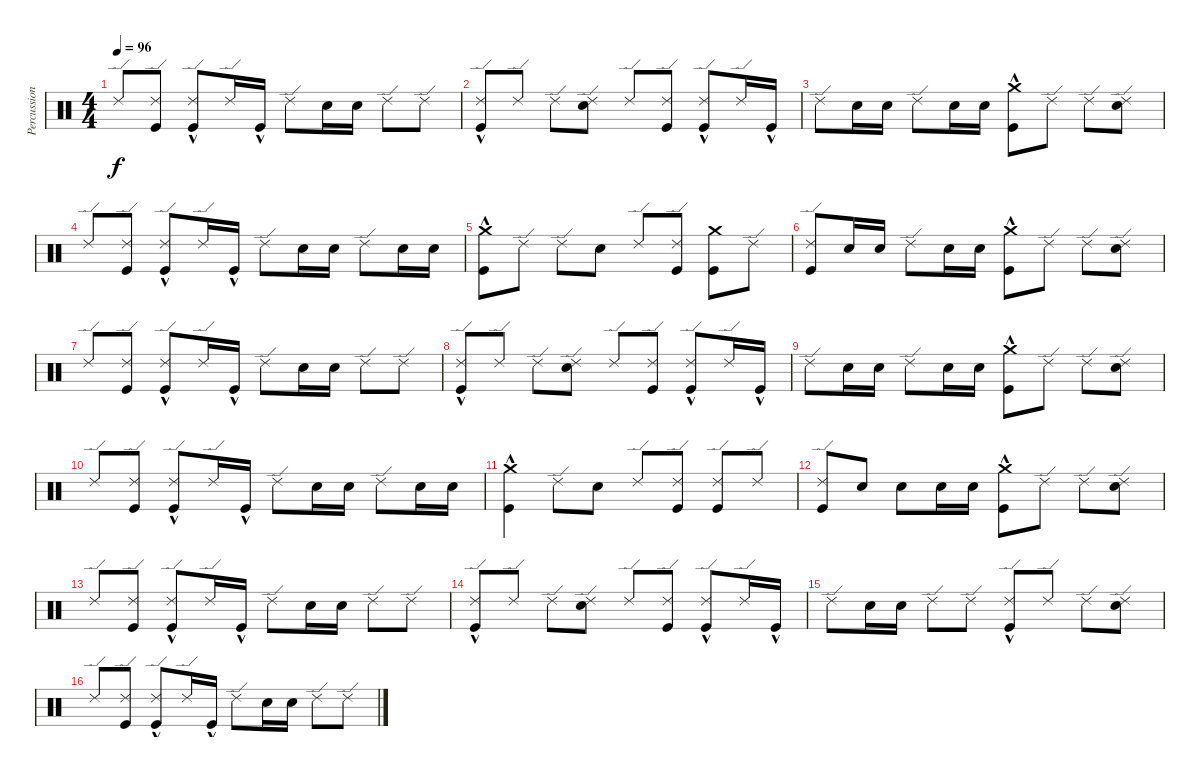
\track ("Percussion" "Percussion") {instrument percussion}
\staff {score}
\articulation defaults
\ts (4 4)
\tempo 96
\clef neutral
\ks c "Ride (edge) 2".8{dy f}
("Kick (hit)" "Ride (edge) 2").8 ("Kick (hit)"{hac} "Ride (edge) 2").8 "Ride (edge) 2".16 "Kick (hit)"{hac}.16 "Ride (edge) 2".8 "Electric Snare (hit)".16 "Electric Snare (hit)".16 "Ride (edge) 2".8 "Ride (edge) 2".8 |
("Kick (hit)"{hac} "Ride (edge) 2").8 "Ride (edge) 2".8 "Ride (edge) 2".8 ("Electric Snare (hit)" "Ride (edge) 2").8 "Ride (edge) 2".8 ("Kick (hit)" "Ride (edge) 2").8 ("Kick (hit)"{hac} "Ride (edge) 2").8 "Ride (edge) 2".16 "Kick (hit)"{hac}.16 |
"Ride (edge) 2".8 "Electric Snare (hit)".16 "Electric Snare (hit)".16 "Ride (edge) 2".8 "Electric Snare (hit)".16 "Electric Snare (hit)".16 ("Kick (hit)"{hac} "Crash medium (hit)").8 "Ride (edge) 2".8 "Ride (edge) 2".8 ("Electric Snare (hit)" "Ride (edge) 2").8 |
"Ride (edge) 2".8 ("Kick (hit)" "Ride (edge) 2").8 ("Kick (hit)"{hac} "Ride (edge) 2").8 "Ride (edge) 2".16 "Kick (hit)"{hac}.16 "Ride (edge) 2".8 "Electric Snare (hit)".16 "Electric Snare (hit)".16 "Ride (edge) 2".8 "Electric Snare (hit)".16 "Electric Snare (hit)".16 |
("Kick (hit)"{hac} "Crash medium (hit)").8 "Ride (edge) 2".8 "Ride (edge) 2".8 "Electric Snare (hit)".8 "Ride (edge) 2".8 ("Kick (hit)" "Ride (edge) 2").8 ("Kick (hit)" "Crash medium (hit)").8 "Ride (edge) 2".8 |
("Kick (hit)" "Ride (edge) 2").8 "Electric Snare (hit)".16 "Electric Snare (hit)".16 "Ride (edge) 2".8 "Electric Snare (hit)".16 "Electric Snare (hit)".16 ("Kick (hit)"{hac} "Crash medium (hit)").8 "Ride (edge) 2".8 "Ride (edge) 2".8 ("Electric Snare (hit)" "Ride (edge) 2").8 |
"Ride (edge) 2".8 ("Kick (hit)" "Ride (edge) 2").8 ("Kick (hit)"{hac} "Ride (edge) 2").8 "Ride (edge) 2".16 "Kick (hit)"{hac}.16 "Ride (edge) 2".8 "Electric Snare (hit)".16 "Electric Snare (hit)".16 "Ride (edge) 2".8 "Ride (edge) 2".8 |
("Kick (hit)"{hac} "Ride (edge) 2").8 "Ride (edge) 2".8 "Ride (edge) 2".8 ("Electric Snare (hit)" "Ride (edge) 2").8 "Ride (edge) 2".8 ("Kick (hit)" "Ride (edge) 2").8 ("Kick (hit)"{hac} "Ride (edge) 2").8 "Ride (edge) 2".16 "Kick (hit)"{hac}.16 |
"Ride (edge) 2".8 "Electric Snare (hit)".16 "Electric Snare (hit)".16 "Ride (edge) 2".8 "Electric Snare (hit)".16 "Electric Snare (hit)".16 ("Kick (hit)"{hac} "Crash medium (hit)").8 "Ride (edge) 2".8 "Ride (edge) 2".8 ("Electric Snare (hit)" "Ride (edge) 2").8 |
"Ride (edge) 2".8 ("Kick (hit)" "Ride (edge) 2").8 ("Kick (hit)"{hac} "Ride (edge) 2").8 "Ride (edge) 2".16 "Kick (hit)"{hac}.16 "Ride (edge) 2".8 "Electric Snare (hit)".16 "Electric Snare (hit)".16 "Ride (edge) 2".8 "Electric Snare (hit)".16 "Electric Snare (hit)".16 |
("Kick (hit)"{hac} "Crash medium (hit)").4 "Ride (edge) 2".8 "Electric Snare (hit)".8 "Ride (edge) 2".8 ("Kick (hit)" "Ride (edge) 2").8 ("Ride (edge) 2" "Kick (hit)").8 "Ride (edge) 2".8 |
("Ride (edge) 2" "Kick (hit)").8 "Electric Snare (hit)".8 "Electric Snare (hit)".8 "Electric Snare (hit)".16 "Electric Snare (hit)".16 ("Kick (hit)"{hac} "Crash medium (hit)").8 "Ride (edge) 2".8 "Ride (edge) 2".8 ("Electric Snare (hit)" "Ride (edge) 2").8 |
"Ride (edge) 2".8 ("Kick (hit)" "Ride (edge) 2").8 ("Kick (hit)"{hac} "Ride (edge) 2").8 "Ride (edge) 2".16 "Kick (hit)"{hac}.16 "Ride (edge) 2".8 "Electric Snare (hit)".16 "Electric Snare (hit)".16 "Ride (edge) 2".8 "Ride (edge) 2".8 |
("Kick (hit)"{hac} "Ride (edge) 2").8 "Ride (edge) 2".8 "Ride (edge) 2".8 ("Electric Snare (hit)" "Ride (edge) 2").8 "Ride (edge) 2".8 ("Kick (hit)" "Ride (edge) 2").8 ("Kick (hit)"{hac} "Ride (edge) 2").8 "Ride (edge) 2".16 "Kick (hit)"{hac}.16 |
"Ride (edge) 2".8 "Electric Snare (hit)".16 "Electric Snare (hit)".16 "Ride (edge) 2".8 "Ride (edge) 2".8 ("Kick (hit)"{hac} "Ride (edge) 2").8 "Ride (edge) 2".8 "Ride (edge) 2".8 ("Electric Snare (hit)" "Ride (edge) 2").8 |
"Ride (edge) 2".8 ("Kick (hit)" "Ride (edge) 2").8 ("Kick (hit)"{hac} "Ride (edge) 2").8 "Ride (edge) 2".16 "Kick (hit)"{hac}.16 "Ride (edge) 2".8 "Electric Snare (hit)".16 "Electric Snare (hit)".16 "Ride (edge) 2".8 "Ride (edge) 2".8
